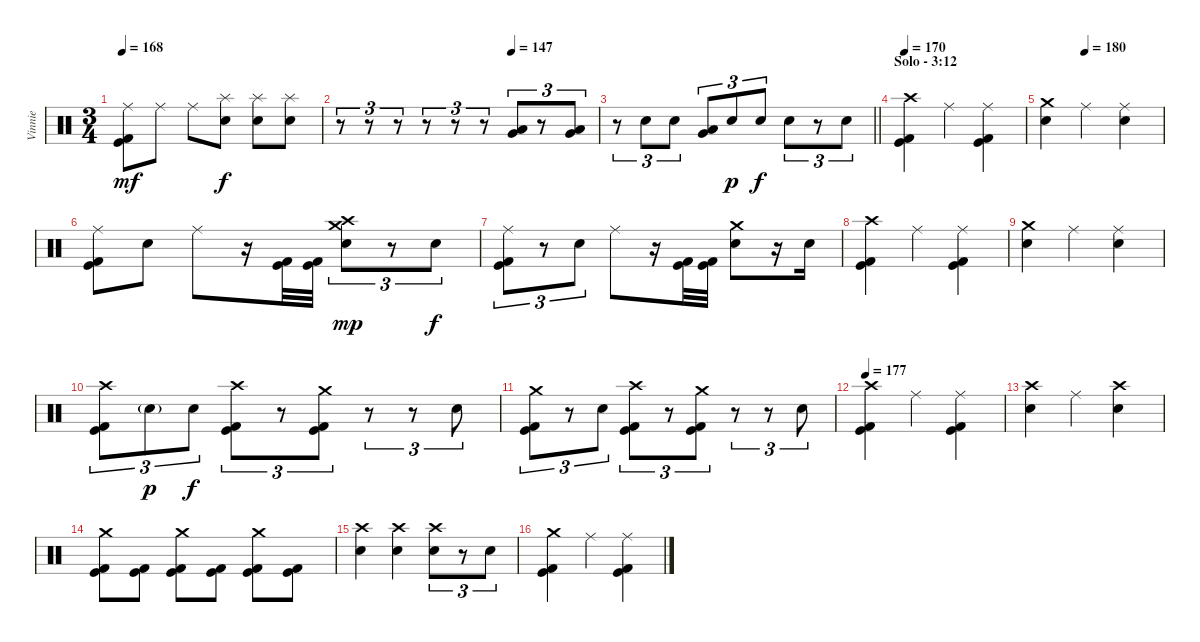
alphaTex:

\track ("Vinnie" "Vinnie") {instrument percussion}
\staff {score}
\articulation defaults
\ts (3 4)
\tempo 168
\clef neutral
\ks c
("Ride (middle)" "Kick (hit)" "Kick (hit) 2").8{dy mf} "Ride (middle)".8 "Ride (middle)".8 ("Splash (hit)" "Electric Snare (hit)").8{dy f} ("Splash (hit)" "Electric Snare (hit)").8 ("Splash (hit)" "Electric Snare (hit)").8 |
\tempo (147 0.6666666666666666)
r.8{tu (3 2)} r.8{tu (3 2)} r.8{tu (3 2)} r.8{tu (3 2)} r.8{tu (3 2)} r.8{tu (3 2)} ("Low Tom (hit)" "Very Low Tom (hit)").8{tu (3 2) volume 16 balance 2} r.8{tu (3 2)} ("Very Low Tom (hit)" "Low Floor Tom (hit)").8{tu (3 2) balance 16} |
\barLineRight lightlight
r.8{tu (3 2) balance 8} "Electric Snare (hit)".8{tu (3 2)} "Electric Snare (hit)".8{tu (3 2)} ("Low Floor Tom (hit)" "Very Low Tom (hit)").8{tu (3 2)} "Electric Snare (hit)".8{tu (3 2) dy p} "Electric Snare (hit)".8{tu (3 2) dy f} "Electric Snare (hit)".8{tu (3 2)} r.8{tu (3 2)} "Electric Snare (hit)".8{tu (3 2)} |
\section ("" "Solo - 3:12")
\tempo 176
\tempo 170
("Crash high (hit)" "Kick (hit)" "Kick (hit) 2").4 "Ride (middle)".4 ("Ride (middle)" "Kick (hit)" "Kick (hit) 2").4 |
\tempo (180 0.3333333333333333)
("Crash medium (hit)" "Electric Snare (hit)").4 "Ride (middle)".4 ("Ride (middle)" "Electric Snare (hit)").4 |
("Ride (middle)" "Kick (hit)" "Kick (hit) 2").8 "Electric Snare (hit)".8 "Ride (middle)".8 r.16 ("Kick (hit)" "Kick (hit) 2").32 ("Kick (hit)" "Kick (hit) 2").32 ("Crash medium (hit)" "Crash high (hit)" "Electric Snare (hit)").8{tu (3 2) dy mp} r.8{tu (3 2)} "Electric Snare (hit)".8{tu (3 2) dy f} |
("Ride (middle)" "Kick (hit)" "Kick (hit) 2").8{tu (3 2)} r.8{tu (3 2)} "Electric Snare (hit)".8{tu (3 2)} "Ride (middle)".8 r.16 ("Kick (hit)" "Kick (hit) 2").32 ("Kick (hit)" "Kick (hit) 2").32 ("Crash medium (hit)" "Electric Snare (hit)").8 r.16 "Electric Snare (hit)".16 |
("Crash high (hit)" "Kick (hit)" "Kick (hit) 2").4 "Ride (middle)".4 ("Ride (middle)" "Kick (hit)" "Kick (hit) 2").4 |
("Crash medium (hit)" "Electric Snare (hit)").4 "Ride (middle)".4 ("Ride (middle)" "Electric Snare (hit)").4 |
("Crash high (hit)" "Kick (hit)" "Kick (hit) 2").8{tu (3 2)} "Electric Snare (hit)"{g}.8{tu (3 2) dy p} "Electric Snare (hit)".8{tu (3 2) dy f} ("Crash high (hit)" "Kick (hit)" "Kick (hit) 2").8{tu (3 2)} r.8{tu (3 2)} ("Crash medium (hit)" "Kick (hit)" "Kick (hit) 2").8{tu (3 2)} r.8{tu (3 2)} r.8{tu (3 2)} "Electric Snare (hit)".8{tu (3 2)} |
("Crash medium (hit)" "Kick (hit)" "Kick (hit) 2").8{tu (3 2)} r.8{tu (3 2)} "Electric Snare (hit)".8{tu (3 2)} ("Crash high (hit)" "Kick (hit)" "Kick (hit) 2").8{tu (3 2)} r.8{tu (3 2)} ("Crash medium (hit)" "Kick (hit)" "Kick (hit) 2").8{tu (3 2)} r.8{tu (3 2)} r.8{tu (3 2)} "Electric Snare (hit)".8{tu (3 2)} |
\tempo 177
("Crash high (hit)" "Kick (hit)" "Kick (hit) 2").4 "Ride (middle)".4 ("Ride (middle)" "Kick (hit)" "Kick (hit) 2").4 |
("Crash high (hit)" "Electric Snare (hit)").4 "Ride (middle)".4 ("Crash high (hit)" "Electric Snare (hit)").4 |
("Crash medium (hit)" "Kick (hit)" "Kick (hit) 2").8 ("Kick (hit)" "Kick (hit) 2").8 ("Crash medium (hit)" "Kick (hit)" "Kick (hit) 2").8 ("Kick (hit)" "Kick (hit) 2").8 ("Crash medium (hit)" "Kick (hit)" "Kick (hit) 2").8 ("Kick (hit)" "Kick (hit) 2").8 |
("Crash high (hit)" "Electric Snare (hit)").4 ("Crash high (hit)" "Electric Snare (hit)").4 ("Crash high (hit)" "Electric Snare (hit)").8{tu (3 2)} r.8{tu (3 2)} "Electric Snare (hit)".8{tu (3 2)} |
("Crash medium (hit)" "Kick (hit)" "Kick (hit) 2").4 "Ride (middle)".4 ("Ride (middle)" "Kick (hit)" "Kick (hit) 2").4
